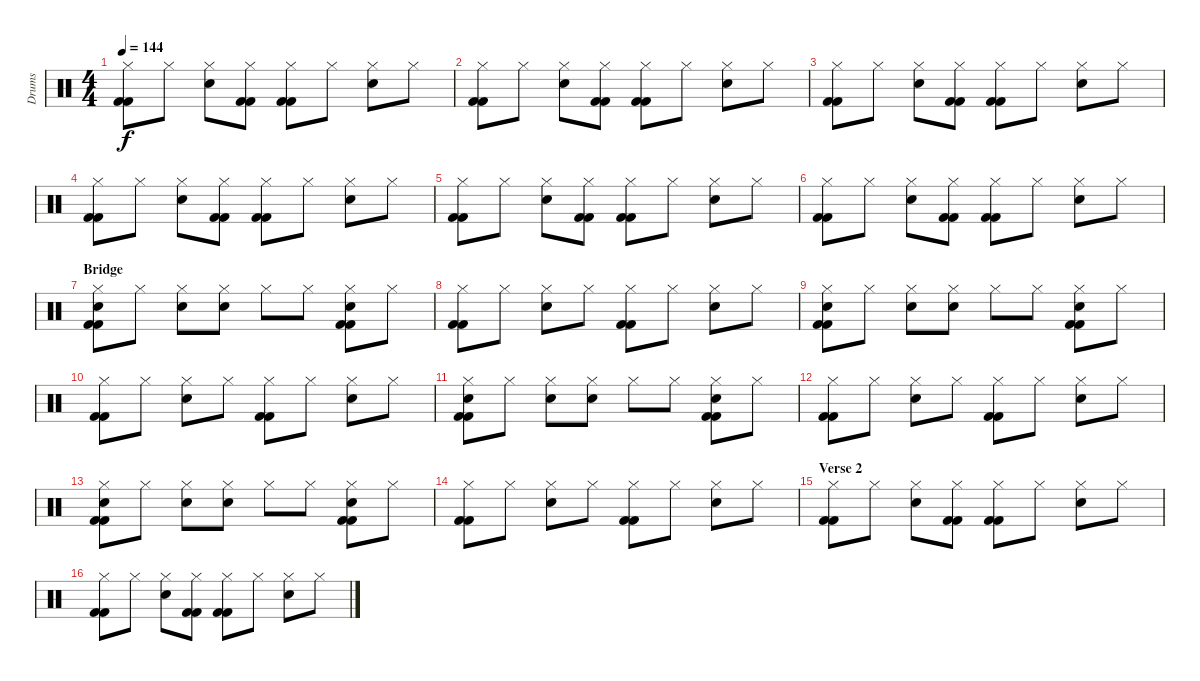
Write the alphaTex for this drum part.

\track ("Drums" "Drums") {instrument percussion}
\staff {score}
\articulation defaults
\ts (4 4)
\tempo 144
\clef neutral
\ks c
("Kick (hit) 2" "Kick (hit) 2" "Hi-Hat (closed)").8{dy f} "Hi-Hat (closed)".8 ("Snare (hit) 2" "Hi-Hat (closed)").8 ("Kick (hit) 2" "Kick (hit) 2" "Hi-Hat (closed)").8 ("Kick (hit) 2" "Kick (hit) 2" "Hi-Hat (closed)").8 "Hi-Hat (closed)".8 ("Snare (hit) 2" "Hi-Hat (closed)").8 "Hi-Hat (closed)".8 |
("Kick (hit) 2" "Kick (hit) 2" "Hi-Hat (closed)").8 "Hi-Hat (closed)".8 ("Snare (hit) 2" "Hi-Hat (closed)").8 ("Kick (hit) 2" "Kick (hit) 2" "Hi-Hat (closed)").8 ("Kick (hit) 2" "Kick (hit) 2" "Hi-Hat (closed)").8 "Hi-Hat (closed)".8 ("Snare (hit) 2" "Hi-Hat (closed)").8 "Hi-Hat (closed)".8 |
("Kick (hit) 2" "Kick (hit) 2" "Hi-Hat (closed)").8 "Hi-Hat (closed)".8 ("Snare (hit) 2" "Hi-Hat (closed)").8 ("Kick (hit) 2" "Kick (hit) 2" "Hi-Hat (closed)").8 ("Kick (hit) 2" "Kick (hit) 2" "Hi-Hat (closed)").8 "Hi-Hat (closed)".8 ("Snare (hit) 2" "Hi-Hat (closed)").8 "Hi-Hat (closed)".8 |
("Kick (hit) 2" "Kick (hit) 2" "Hi-Hat (closed)").8 "Hi-Hat (closed)".8 ("Snare (hit) 2" "Hi-Hat (closed)").8 ("Kick (hit) 2" "Kick (hit) 2" "Hi-Hat (closed)").8 ("Kick (hit) 2" "Kick (hit) 2" "Hi-Hat (closed)").8 "Hi-Hat (closed)".8 ("Snare (hit) 2" "Hi-Hat (closed)").8 "Hi-Hat (closed)".8 |
("Kick (hit) 2" "Kick (hit) 2" "Hi-Hat (closed)").8 "Hi-Hat (closed)".8 ("Snare (hit) 2" "Hi-Hat (closed)").8 ("Kick (hit) 2" "Kick (hit) 2" "Hi-Hat (closed)").8 ("Kick (hit) 2" "Kick (hit) 2" "Hi-Hat (closed)").8 "Hi-Hat (closed)".8 ("Snare (hit) 2" "Hi-Hat (closed)").8 "Hi-Hat (closed)".8 |
("Kick (hit) 2" "Kick (hit) 2" "Hi-Hat (closed)").8 "Hi-Hat (closed)".8 ("Snare (hit) 2" "Hi-Hat (closed)").8 ("Kick (hit) 2" "Kick (hit) 2" "Hi-Hat (closed)").8 ("Kick (hit) 2" "Kick (hit) 2" "Hi-Hat (closed)").8 "Hi-Hat (closed)".8 ("Snare (hit) 2" "Hi-Hat (closed)").8 "Hi-Hat (closed)".8 |
\section ("" "Bridge")
("Kick (hit) 2" "Kick (hit) 2" "Snare (hit) 2" "Hi-Hat (closed)").8 "Hi-Hat (closed)".8 ("Snare (hit) 2" "Hi-Hat (closed)").8 ("Snare (hit) 2" "Hi-Hat (closed)").8 "Hi-Hat (closed)".8 "Hi-Hat (closed)".8 ("Kick (hit) 2" "Kick (hit) 2" "Snare (hit) 2" "Hi-Hat (closed)").8 "Hi-Hat (closed)".8 |
("Kick (hit) 2" "Kick (hit) 2" "Hi-Hat (closed)").8 "Hi-Hat (closed)".8 ("Snare (hit) 2" "Hi-Hat (closed)").8 "Hi-Hat (closed)".8 ("Kick (hit) 2" "Kick (hit) 2" "Hi-Hat (closed)").8 "Hi-Hat (closed)".8 ("Snare (hit) 2" "Hi-Hat (closed)").8 "Hi-Hat (closed)".8 |
("Kick (hit) 2" "Kick (hit) 2" "Snare (hit) 2" "Hi-Hat (closed)").8 "Hi-Hat (closed)".8 ("Snare (hit) 2" "Hi-Hat (closed)").8 ("Snare (hit) 2" "Hi-Hat (closed)").8 "Hi-Hat (closed)".8 "Hi-Hat (closed)".8 ("Kick (hit) 2" "Kick (hit) 2" "Snare (hit) 2" "Hi-Hat (closed)").8 "Hi-Hat (closed)".8 |
("Kick (hit) 2" "Kick (hit) 2" "Hi-Hat (closed)").8 "Hi-Hat (closed)".8 ("Snare (hit) 2" "Hi-Hat (closed)").8 "Hi-Hat (closed)".8 ("Kick (hit) 2" "Kick (hit) 2" "Hi-Hat (closed)").8 "Hi-Hat (closed)".8 ("Snare (hit) 2" "Hi-Hat (closed)").8 "Hi-Hat (closed)".8 |
("Kick (hit) 2" "Kick (hit) 2" "Snare (hit) 2" "Hi-Hat (closed)").8 "Hi-Hat (closed)".8 ("Snare (hit) 2" "Hi-Hat (closed)").8 ("Snare (hit) 2" "Hi-Hat (closed)").8 "Hi-Hat (closed)".8 "Hi-Hat (closed)".8 ("Kick (hit) 2" "Kick (hit) 2" "Snare (hit) 2" "Hi-Hat (closed)").8 "Hi-Hat (closed)".8 |
("Kick (hit) 2" "Kick (hit) 2" "Hi-Hat (closed)").8 "Hi-Hat (closed)".8 ("Snare (hit) 2" "Hi-Hat (closed)").8 "Hi-Hat (closed)".8 ("Kick (hit) 2" "Kick (hit) 2" "Hi-Hat (closed)").8 "Hi-Hat (closed)".8 ("Snare (hit) 2" "Hi-Hat (closed)").8 "Hi-Hat (closed)".8 |
("Kick (hit) 2" "Kick (hit) 2" "Snare (hit) 2" "Hi-Hat (closed)").8 "Hi-Hat (closed)".8 ("Snare (hit) 2" "Hi-Hat (closed)").8 ("Snare (hit) 2" "Hi-Hat (closed)").8 "Hi-Hat (closed)".8 "Hi-Hat (closed)".8 ("Kick (hit) 2" "Kick (hit) 2" "Snare (hit) 2" "Hi-Hat (closed)").8 "Hi-Hat (closed)".8 |
("Kick (hit) 2" "Kick (hit) 2" "Hi-Hat (closed)").8 "Hi-Hat (closed)".8 ("Snare (hit) 2" "Hi-Hat (closed)").8 "Hi-Hat (closed)".8 ("Kick (hit) 2" "Kick (hit) 2" "Hi-Hat (closed)").8 "Hi-Hat (closed)".8 ("Snare (hit) 2" "Hi-Hat (closed)").8 "Hi-Hat (closed)".8 |
\section ("" "Verse 2")
("Kick (hit) 2" "Kick (hit) 2" "Hi-Hat (closed)").8 "Hi-Hat (closed)".8 ("Snare (hit) 2" "Hi-Hat (closed)").8 ("Kick (hit) 2" "Kick (hit) 2" "Hi-Hat (closed)").8 ("Kick (hit) 2" "Kick (hit) 2" "Hi-Hat (closed)").8 "Hi-Hat (closed)".8 ("Snare (hit) 2" "Hi-Hat (closed)").8 "Hi-Hat (closed)".8 |
("Kick (hit) 2" "Kick (hit) 2" "Hi-Hat (closed)").8 "Hi-Hat (closed)".8 ("Snare (hit) 2" "Hi-Hat (closed)").8 ("Kick (hit) 2" "Kick (hit) 2" "Hi-Hat (closed)").8 ("Kick (hit) 2" "Kick (hit) 2" "Hi-Hat (closed)").8 "Hi-Hat (closed)".8 ("Snare (hit) 2" "Hi-Hat (closed)").8 "Hi-Hat (closed)".8
